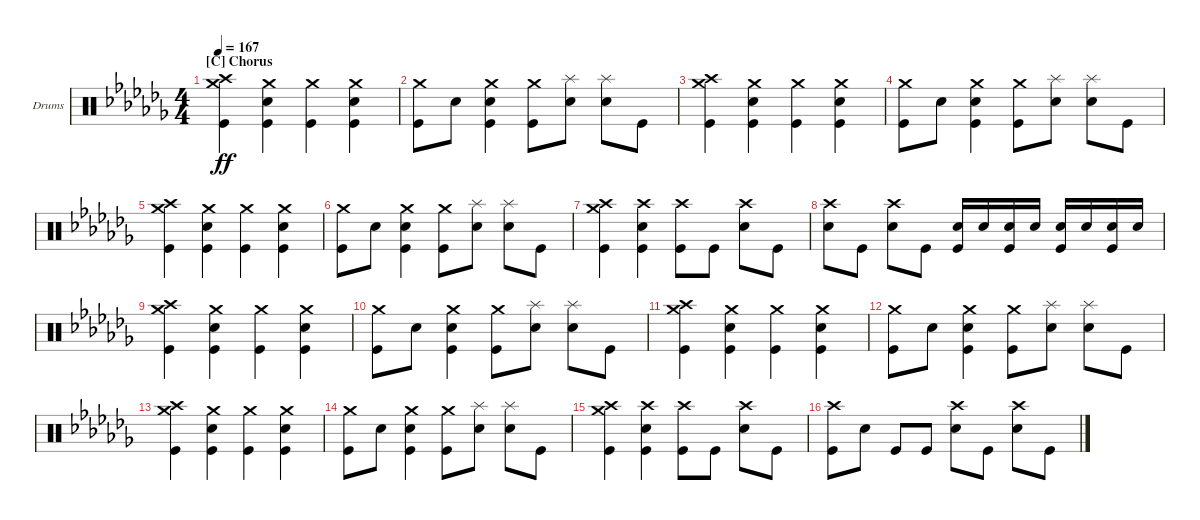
\defaultSystemsLayout 4
\bracketExtendMode groupsimilarinstruments
\firstSystemTrackNameOrientation horizontal
\otherSystemsTrackNameOrientation horizontal
\track ("Drumkit" "Drums") {instrument percussion}
\staff {score}
\articulation defaults
\ts (4 4)
\section ("C" "Chorus")
\tempo 167
\clef neutral
\ks abminor
("Crash medium (hit)" "Crash high (hit)" "Kick (hit)").4{dy ff} ("Snare (hit) 2" "Kick (hit)" "Crash medium (hit)").4 ("Kick (hit)" "Crash medium (hit)").4 ("Snare (hit) 2" "Kick (hit)" "Crash medium (hit)").4 |
("Kick (hit)" "Crash medium (hit)").8 "Snare (hit) 2".8 ("Snare (hit) 2" "Kick (hit)" "Crash medium (hit)").4 ("Kick (hit)" "Crash medium (hit)").8 ("Snare (hit) 2" "Splash (hit)").8 ("Snare (hit) 2" "Splash (hit)").8 "Kick (hit)".8 |
("Crash medium (hit)" "Crash high (hit)" "Kick (hit)").4 ("Snare (hit) 2" "Kick (hit)" "Crash medium (hit)").4 ("Kick (hit)" "Crash medium (hit)").4 ("Snare (hit) 2" "Kick (hit)" "Crash medium (hit)").4 |
("Kick (hit)" "Crash medium (hit)").8 "Snare (hit) 2".8 ("Snare (hit) 2" "Kick (hit)" "Crash medium (hit)").4 ("Kick (hit)" "Crash medium (hit)").8 ("Snare (hit) 2" "Splash (hit)").8 ("Snare (hit) 2" "Splash (hit)").8 "Kick (hit)".8 |
("Crash medium (hit)" "Crash high (hit)" "Kick (hit)").4 ("Snare (hit) 2" "Kick (hit)" "Crash medium (hit)").4 ("Kick (hit)" "Crash medium (hit)").4 ("Snare (hit) 2" "Kick (hit)" "Crash medium (hit)").4 |
("Kick (hit)" "Crash medium (hit)").8 "Snare (hit) 2".8 ("Snare (hit) 2" "Kick (hit)" "Crash medium (hit)").4 ("Kick (hit)" "Crash medium (hit)").8 ("Snare (hit) 2" "Splash (hit)").8 ("Snare (hit) 2" "Splash (hit)").8 "Kick (hit)".8 |
("Kick (hit)" "Crash high (hit)" "Crash medium (hit)").4 ("Kick (hit)" "Snare (hit) 2" "Crash high (hit)").4 ("Kick (hit)" "Crash high (hit)").8 "Kick (hit)".8 ("Snare (hit) 2" "Crash high (hit)").8 "Kick (hit)".8 |
("Snare (hit) 2" "Crash high (hit)").8 "Kick (hit)".8 ("Snare (hit) 2" "Crash high (hit)").8 "Kick (hit)".8 ("Snare (hit) 2" "Kick (hit)").16 "Snare (hit) 2".16 ("Snare (hit) 2" "Kick (hit)").16 "Snare (hit) 2".16 ("Snare (hit) 2" "Kick (hit)").16 "Snare (hit) 2".16 ("Snare (hit) 2" "Kick (hit)").16 "Snare (hit) 2".16 |
("Crash medium (hit)" "Crash high (hit)" "Kick (hit)").4 ("Snare (hit) 2" "Kick (hit)" "Crash medium (hit)").4 ("Kick (hit)" "Crash medium (hit)").4 ("Snare (hit) 2" "Kick (hit)" "Crash medium (hit)").4 |
("Kick (hit)" "Crash medium (hit)").8 "Snare (hit) 2".8 ("Snare (hit) 2" "Kick (hit)" "Crash medium (hit)").4 ("Kick (hit)" "Crash medium (hit)").8 ("Snare (hit) 2" "Splash (hit)").8 ("Snare (hit) 2" "Splash (hit)").8 "Kick (hit)".8 |
("Crash medium (hit)" "Crash high (hit)" "Kick (hit)").4 ("Snare (hit) 2" "Kick (hit)" "Crash medium (hit)").4 ("Kick (hit)" "Crash medium (hit)").4 ("Snare (hit) 2" "Kick (hit)" "Crash medium (hit)").4 |
("Kick (hit)" "Crash medium (hit)").8 "Snare (hit) 2".8 ("Snare (hit) 2" "Kick (hit)" "Crash medium (hit)").4 ("Kick (hit)" "Crash medium (hit)").8 ("Snare (hit) 2" "Splash (hit)").8 ("Snare (hit) 2" "Splash (hit)").8 "Kick (hit)".8 |
("Crash medium (hit)" "Crash high (hit)" "Kick (hit)").4 ("Snare (hit) 2" "Kick (hit)" "Crash medium (hit)").4 ("Kick (hit)" "Crash medium (hit)").4 ("Snare (hit) 2" "Kick (hit)" "Crash medium (hit)").4 |
("Kick (hit)" "Crash medium (hit)").8 "Snare (hit) 2".8 ("Snare (hit) 2" "Kick (hit)" "Crash medium (hit)").4 ("Kick (hit)" "Crash medium (hit)").8 ("Snare (hit) 2" "Splash (hit)").8 ("Snare (hit) 2" "Splash (hit)").8 "Kick (hit)".8 |
("Kick (hit)" "Crash high (hit)" "Crash medium (hit)").4 ("Kick (hit)" "Snare (hit) 2" "Crash high (hit)").4 ("Kick (hit)" "Crash high (hit)").8 "Kick (hit)".8 ("Snare (hit) 2" "Crash high (hit)").8 "Kick (hit)".8 |
("Kick (hit)" "Crash high (hit)").8 "Snare (hit) 2".8 "Kick (hit)".8 "Kick (hit)".8 ("Snare (hit) 2" "Crash high (hit)").8 "Kick (hit)".8 ("Snare (hit) 2" "Crash high (hit)").8 "Kick (hit)".8
